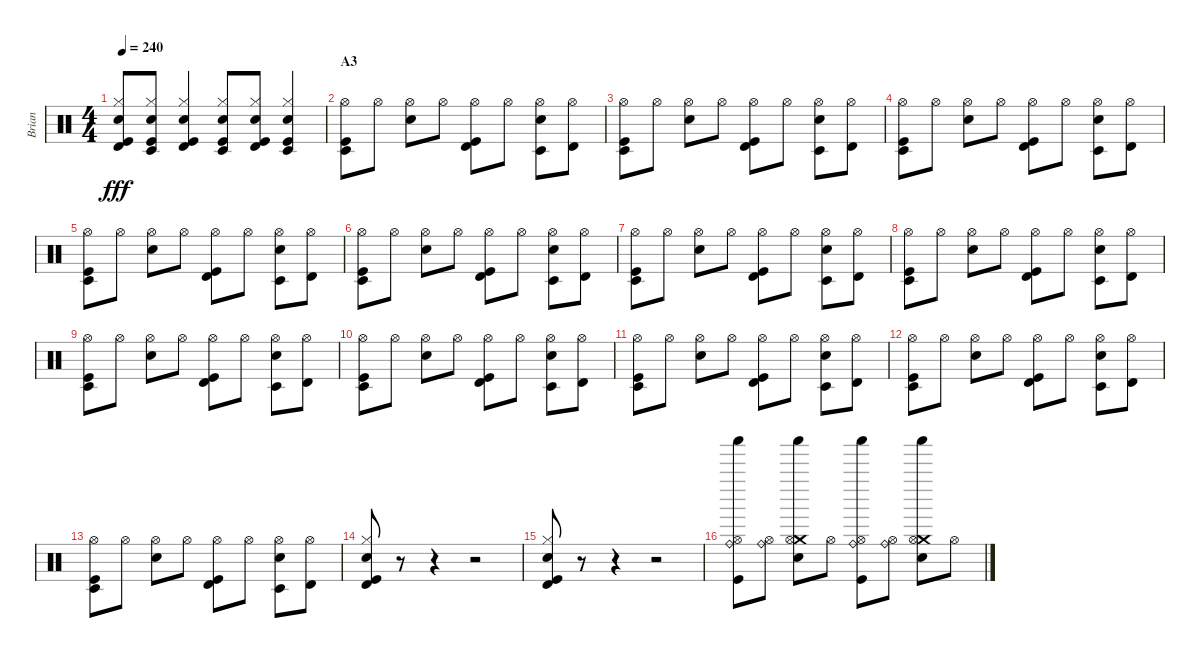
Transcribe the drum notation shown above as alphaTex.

\track ("Brian" "Brian") {instrument percussion}
\staff {score}
\articulation defaults
\ts (4 4)
\tempo 240
\clef neutral
\ks c
("Timbale high (hit)" "Hi-Hat (closed)" "Snare (hit) 2" "Kick (hit)").8{dy fff} ("Timbale low (hit)" "Hi-Hat (closed)" "Snare (hit) 2" "Kick (hit)").8 ("Timbale high (hit)" "Hi-Hat (closed)" "Snare (hit) 2" "Kick (hit)").4 ("Timbale low (hit)" "Hi-Hat (closed)" "Snare (hit) 2" "Kick (hit)").8 ("Timbale high (hit)" "Hi-Hat (closed)" "Snare (hit) 2" "Kick (hit)").8 ("Timbale low (hit)" "Hi-Hat (closed)" "Snare (hit) 2" "Kick (hit)").4 |
\section ("" "A3")
("Timbale low (hit)" "Hi-Hat (open)" "Kick (hit)").8 "Hi-Hat (open)".8 ("Hi-Hat (open)" "Snare (hit) 2").8 "Hi-Hat (open)".8 ("Timbale high (hit)" "Hi-Hat (open)" "Kick (hit)").8 "Hi-Hat (open)".8 ("Timbale low (hit)" "Hi-Hat (open)" "Snare (hit) 2").8 ("Timbale high (hit)" "Hi-Hat (open)").8 |
("Timbale low (hit)" "Hi-Hat (open)" "Kick (hit)").8 "Hi-Hat (open)".8 ("Hi-Hat (open)" "Snare (hit) 2").8 "Hi-Hat (open)".8 ("Timbale high (hit)" "Hi-Hat (open)" "Kick (hit)").8 "Hi-Hat (open)".8 ("Timbale low (hit)" "Hi-Hat (open)" "Snare (hit) 2").8 ("Timbale high (hit)" "Hi-Hat (open)").8 |
("Timbale low (hit)" "Hi-Hat (open)" "Kick (hit)").8 "Hi-Hat (open)".8 ("Hi-Hat (open)" "Snare (hit) 2").8 "Hi-Hat (open)".8 ("Timbale high (hit)" "Hi-Hat (open)" "Kick (hit)").8 "Hi-Hat (open)".8 ("Timbale low (hit)" "Hi-Hat (open)" "Snare (hit) 2").8 ("Timbale high (hit)" "Hi-Hat (open)").8 |
("Timbale low (hit)" "Hi-Hat (open)" "Kick (hit)").8 "Hi-Hat (open)".8 ("Hi-Hat (open)" "Snare (hit) 2").8 "Hi-Hat (open)".8 ("Timbale high (hit)" "Hi-Hat (open)" "Kick (hit)").8 "Hi-Hat (open)".8 ("Timbale low (hit)" "Hi-Hat (open)" "Snare (hit) 2").8 ("Timbale high (hit)" "Hi-Hat (open)").8 |
("Timbale low (hit)" "Hi-Hat (open)" "Kick (hit)").8 "Hi-Hat (open)".8 ("Hi-Hat (open)" "Snare (hit) 2").8 "Hi-Hat (open)".8 ("Timbale high (hit)" "Hi-Hat (open)" "Kick (hit)").8 "Hi-Hat (open)".8 ("Timbale low (hit)" "Hi-Hat (open)" "Snare (hit) 2").8 ("Timbale high (hit)" "Hi-Hat (open)").8 |
("Timbale low (hit)" "Hi-Hat (open)" "Kick (hit)").8 "Hi-Hat (open)".8 ("Hi-Hat (open)" "Snare (hit) 2").8 "Hi-Hat (open)".8 ("Timbale high (hit)" "Hi-Hat (open)" "Kick (hit)").8 "Hi-Hat (open)".8 ("Timbale low (hit)" "Hi-Hat (open)" "Snare (hit) 2").8 ("Timbale high (hit)" "Hi-Hat (open)").8 |
("Timbale low (hit)" "Hi-Hat (open)" "Kick (hit)").8 "Hi-Hat (open)".8 ("Hi-Hat (open)" "Snare (hit) 2").8 "Hi-Hat (open)".8 ("Timbale high (hit)" "Hi-Hat (open)" "Kick (hit)").8 "Hi-Hat (open)".8 ("Timbale low (hit)" "Hi-Hat (open)" "Snare (hit) 2").8 ("Timbale high (hit)" "Hi-Hat (open)").8 |
("Timbale low (hit)" "Hi-Hat (open)" "Kick (hit)").8 "Hi-Hat (open)".8 ("Hi-Hat (open)" "Snare (hit) 2").8 "Hi-Hat (open)".8 ("Timbale high (hit)" "Hi-Hat (open)" "Kick (hit)").8 "Hi-Hat (open)".8 ("Timbale low (hit)" "Hi-Hat (open)" "Snare (hit) 2").8 ("Timbale high (hit)" "Hi-Hat (open)").8 |
("Timbale low (hit)" "Hi-Hat (open)" "Kick (hit)").8 "Hi-Hat (open)".8 ("Hi-Hat (open)" "Snare (hit) 2").8 "Hi-Hat (open)".8 ("Timbale high (hit)" "Hi-Hat (open)" "Kick (hit)").8 "Hi-Hat (open)".8 ("Timbale low (hit)" "Hi-Hat (open)" "Snare (hit) 2").8 ("Timbale high (hit)" "Hi-Hat (open)").8 |
("Timbale low (hit)" "Hi-Hat (open)" "Kick (hit)").8 "Hi-Hat (open)".8 ("Hi-Hat (open)" "Snare (hit) 2").8 "Hi-Hat (open)".8 ("Timbale high (hit)" "Hi-Hat (open)" "Kick (hit)").8 "Hi-Hat (open)".8 ("Timbale low (hit)" "Hi-Hat (open)" "Snare (hit) 2").8 ("Timbale high (hit)" "Hi-Hat (open)").8 |
("Timbale low (hit)" "Hi-Hat (open)" "Kick (hit)").8 "Hi-Hat (open)".8 ("Hi-Hat (open)" "Snare (hit) 2").8 "Hi-Hat (open)".8 ("Timbale high (hit)" "Hi-Hat (open)" "Kick (hit)").8 "Hi-Hat (open)".8 ("Timbale low (hit)" "Hi-Hat (open)" "Snare (hit) 2").8 ("Timbale high (hit)" "Hi-Hat (open)").8 |
("Timbale low (hit)" "Hi-Hat (open)" "Kick (hit)").8 "Hi-Hat (open)".8 ("Hi-Hat (open)" "Snare (hit) 2").8 "Hi-Hat (open)".8 ("Timbale high (hit)" "Hi-Hat (open)" "Kick (hit)").8 "Hi-Hat (open)".8 ("Timbale low (hit)" "Hi-Hat (open)" "Snare (hit) 2").8 ("Timbale high (hit)" "Hi-Hat (open)").8 |
("Timbale high (hit)" "Hi-Hat (closed)" "Snare (hit) 2" "Kick (hit)").8 r.8 r.4 r.2 |
("Timbale high (hit)" "Hi-Hat (closed)" "Snare (hit) 2" "Kick (hit)").8 r.8 r.4 r.2 |
("Shaker (hit)" "Ride (bell)" "Hi-Hat (open)" "Kick (hit)").8 ("Ride (bell)" "Hi-Hat (open)").8 ("Shaker (hit)" "Crash medium (hit)" "Hi-Hat (open)" "Snare (hit) 2").8 "Hi-Hat (open)".8 ("Shaker (hit)" "Ride (bell)" "Hi-Hat (open)" "Kick (hit)").8 ("Ride (bell)" "Hi-Hat (open)").8 ("Shaker (hit)" "Crash medium (hit)" "Hi-Hat (open)" "Snare (hit) 2").8 "Hi-Hat (open)".8
